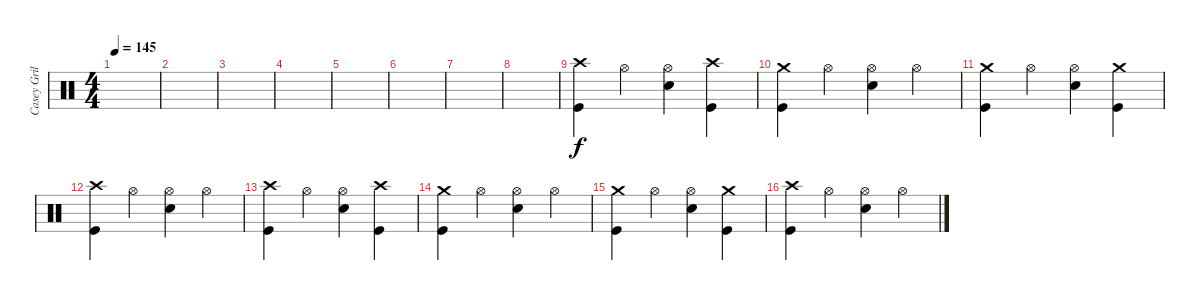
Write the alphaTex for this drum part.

\track ("Casey Grillo" "Casey Gril") {instrument percussion}
\staff {score}
\articulation defaults
\ts (4 4)
\tempo 145
\clef neutral
\ks c
|
|
|
|
|
|
|
|
("Crash high (hit)" "Kick (hit)").4 "Hi-Hat (open)".4 ("Hi-Hat (open)" "Snare (hit) 2").4 ("Crash high (hit)" "Kick (hit)").4 |
("Crash medium (hit)" "Kick (hit)").4 "Hi-Hat (open)".4 ("Hi-Hat (open)" "Snare (hit) 2").4 "Hi-Hat (open)".4 |
("Crash medium (hit)" "Kick (hit)").4 "Hi-Hat (open)".4 ("Hi-Hat (open)" "Snare (hit) 2").4 ("Crash medium (hit)" "Kick (hit)").4 |
("Crash high (hit)" "Kick (hit)").4 "Hi-Hat (open)".4 ("Hi-Hat (open)" "Snare (hit) 2").4 "Hi-Hat (open)".4 |
("Crash high (hit)" "Kick (hit)").4 "Hi-Hat (open)".4 ("Hi-Hat (open)" "Snare (hit) 2").4 ("Crash high (hit)" "Kick (hit)").4 |
("Crash medium (hit)" "Kick (hit)").4 "Hi-Hat (open)".4 ("Hi-Hat (open)" "Snare (hit) 2").4 "Hi-Hat (open)".4 |
("Crash medium (hit)" "Kick (hit)").4 "Hi-Hat (open)".4 ("Hi-Hat (open)" "Snare (hit) 2").4 ("Crash medium (hit)" "Kick (hit)").4 |
("Crash high (hit)" "Kick (hit)").4 "Hi-Hat (open)".4 ("Hi-Hat (open)" "Snare (hit) 2").4 "Hi-Hat (open)".4
